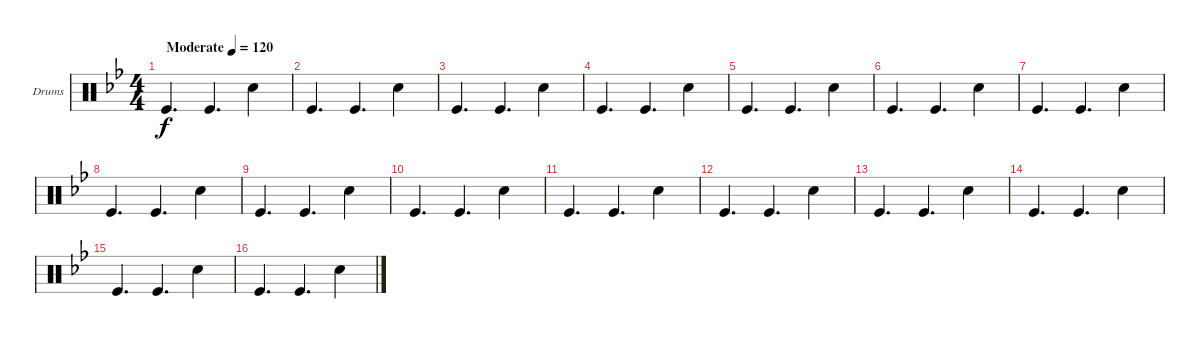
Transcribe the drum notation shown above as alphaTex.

\bracketExtendMode groupsimilarinstruments
\firstSystemTrackNameOrientation horizontal
\otherSystemsTrackNameOrientation horizontal
\track ("Drumkit" "Drums") {instrument percussion}
\staff {score}
\articulation defaults
\ts (4 4)
\beaming (8 2 2 2 2)
\tempo (120 "Moderate")
\clef neutral
\ks bb "Kick (hit)".4{d dy f} "Kick (hit)".4{d} "Snare (hit) 2".4
|
"Kick (hit)".4{d} "Kick (hit)".4{d} "Snare (hit) 2".4 |
"Kick (hit)".4{d} "Kick (hit)".4{d} "Snare (hit) 2".4 |
"Kick (hit)".4{d} "Kick (hit)".4{d} "Snare (hit) 2".4 |
"Kick (hit)".4{d} "Kick (hit)".4{d} "Snare (hit) 2".4 |
"Kick (hit)".4{d} "Kick (hit)".4{d} "Snare (hit) 2".4 |
"Kick (hit)".4{d} "Kick (hit)".4{d} "Snare (hit) 2".4 |
"Kick (hit)".4{d} "Kick (hit)".4{d} "Snare (hit) 2".4 |
"Kick (hit)".4{d} "Kick (hit)".4{d} "Snare (hit) 2".4 |
"Kick (hit)".4{d} "Kick (hit)".4{d} "Snare (hit) 2".4 |
"Kick (hit)".4{d} "Kick (hit)".4{d} "Snare (hit) 2".4 |
"Kick (hit)".4{d} "Kick (hit)".4{d} "Snare (hit) 2".4 |
"Kick (hit)".4{d} "Kick (hit)".4{d} "Snare (hit) 2".4 |
"Kick (hit)".4{d} "Kick (hit)".4{d} "Snare (hit) 2".4 |
"Kick (hit)".4{d} "Kick (hit)".4{d} "Snare (hit) 2".4 |
"Kick (hit)".4{d} "Kick (hit)".4{d} "Snare (hit) 2".4
